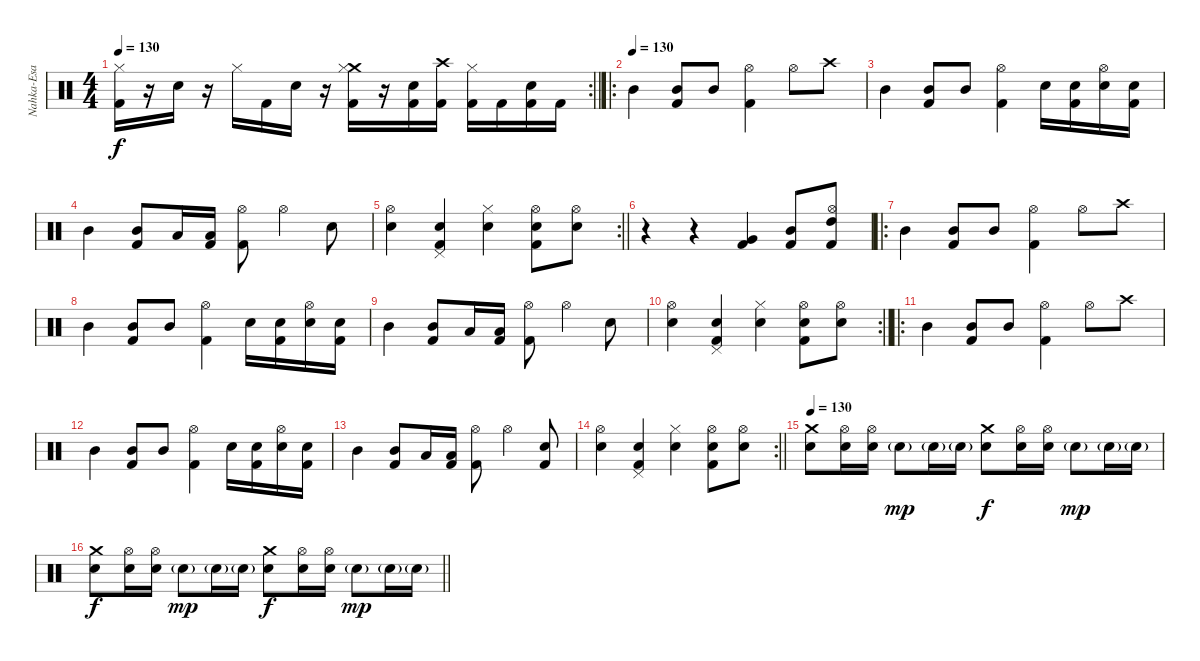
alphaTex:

\track ("Nahka-Esa" "Nahka-Esa") {instrument percussion}
\staff {score}
\articulation defaults
\rc 2
\ts (4 4)
\tempo 130
\clef neutral
\barLineRight lightlight
\ks c
("Hi-Hat (closed)" "Kick (hit) 2").16{dy f} r.16 "Snare (hit) 2".16 r.16 "Hi-Hat (closed)".16 "Kick (hit) 2".16 "Snare (hit) 2".16 r.16 ("Crash medium (hit)" "Hi-Hat (closed)" "Kick (hit) 2").16 r.16 ("Snare (hit) 2" "Kick (hit) 2").16 ("Crash high (hit)" "Kick (hit) 2").16 ("Hi-Hat (closed)" "Kick (hit) 2").16 "Kick (hit) 2".16 ("Snare (hit) 2" "Kick (hit) 2").16 "Kick (hit) 2".16 |
\ro
\tempo (130)
"Mid Tom (hit)".4 ("Mid Tom (hit)" "Kick (hit) 2").8 "Mid Tom (hit)".8 ("Hi-Hat (open)" "Kick (hit) 2").4 "Hi-Hat (open)".8 "Crash high (hit)".8 |
"Mid Tom (hit)".4 ("Mid Tom (hit)" "Kick (hit) 2").8 "Mid Tom (hit)".8 ("Hi-Hat (open)" "Kick (hit) 2").4 "Electric Snare (hit)".16 ("Electric Snare (hit)" "Kick (hit) 2").16 ("Hi-Hat (open)" "Electric Snare (hit)").16 ("Electric Snare (hit)" "Kick (hit) 2").16 |
"Mid Tom (hit)".4 ("Mid Tom (hit)" "Kick (hit) 2").8 "Low Tom (hit)".16 ("Low Tom (hit)" "Kick (hit) 2").16 ("Hi-Hat (open)" "Kick (hit) 2").8 "Hi-Hat (open)".4 "Electric Snare (hit)".8 |
\rc 2
\barLineRight lightlight
("Hi-Hat (open)" "Electric Snare (hit)").4 ("Pedal Hi-Hat (hit)" "Electric Snare (hit)" "Kick (hit) 2").4 ("Hi-Hat (closed)" "Electric Snare (hit)").4 ("Hi-Hat (open)" "Electric Snare (hit)" "Kick (hit) 2").8 ("Hi-Hat (open)" "Electric Snare (hit)").8 |
r.4 r.4 ("Very Low Tom (hit)" "Kick (hit) 2").4 ("Mid Tom (hit)" "Kick (hit) 2").8 ("Hi-Hat (open)" "High Tom (hit)" "Kick (hit) 2").8 |
\ro "Mid Tom (hit)".4
("Mid Tom (hit)" "Kick (hit) 2").8 "Mid Tom (hit)".8 ("Hi-Hat (open)" "Kick (hit) 2").4 "Hi-Hat (open)".8 "Crash high (hit)".8 |
"Mid Tom (hit)".4 ("Mid Tom (hit)" "Kick (hit) 2").8 "Mid Tom (hit)".8 ("Hi-Hat (open)" "Kick (hit) 2").4 "Electric Snare (hit)".16 ("Electric Snare (hit)" "Kick (hit) 2").16 ("Hi-Hat (open)" "Electric Snare (hit)").16 ("Electric Snare (hit)" "Kick (hit) 2").16 |
"Mid Tom (hit)".4 ("Mid Tom (hit)" "Kick (hit) 2").8 "Low Tom (hit)".16 ("Low Tom (hit)" "Kick (hit) 2").16 ("Hi-Hat (open)" "Kick (hit) 2").8 "Hi-Hat (open)".4 "Electric Snare (hit)".8 |
\rc 2
\barLineRight lightlight
("Hi-Hat (open)" "Electric Snare (hit)").4 ("Pedal Hi-Hat (hit)" "Electric Snare (hit)" "Kick (hit) 2").4 ("Hi-Hat (closed)" "Electric Snare (hit)").4 ("Hi-Hat (open)" "Electric Snare (hit)" "Kick (hit) 2").8 ("Hi-Hat (open)" "Electric Snare (hit)").8 |
\ro "Mid Tom (hit)".4
("Mid Tom (hit)" "Kick (hit) 2").8 "Mid Tom (hit)".8 ("Hi-Hat (open)" "Kick (hit) 2").4 "Hi-Hat (open)".8 "Crash high (hit)".8 |
"Mid Tom (hit)".4 ("Mid Tom (hit)" "Kick (hit) 2").8 "Mid Tom (hit)".8 ("Hi-Hat (open)" "Kick (hit) 2").4 "Electric Snare (hit)".16 ("Electric Snare (hit)" "Kick (hit) 2").16 ("Hi-Hat (open)" "Electric Snare (hit)").16 ("Electric Snare (hit)" "Kick (hit) 2").16 |
"Mid Tom (hit)".4 ("Mid Tom (hit)" "Kick (hit) 2").8 "Low Tom (hit)".16 ("Low Tom (hit)" "Kick (hit) 2").16 ("Hi-Hat (open)" "Kick (hit) 2").8 "Hi-Hat (open)".4 ("Electric Snare (hit)" "Kick (hit) 2").8 |
\rc 2
\barLineRight lightlight
("Hi-Hat (open)" "Electric Snare (hit)").4 ("Pedal Hi-Hat (hit)" "Electric Snare (hit)" "Kick (hit) 2").4 ("Hi-Hat (closed)" "Electric Snare (hit)").4 ("Hi-Hat (open)" "Electric Snare (hit)" "Kick (hit) 2").8 ("Hi-Hat (open)" "Electric Snare (hit)").8 |
\tempo 130
("Crash medium (hit)" "Electric Snare (hit)").8 ("Hi-Hat (open)" "Electric Snare (hit)").16 ("Hi-Hat (open)" "Electric Snare (hit)").16 "Snare (hit)"{g}.8{dy mp} "Snare (hit)"{g}.16 "Snare (hit)"{g}.16 ("Crash medium (hit)" "Electric Snare (hit)").8{dy f} ("Hi-Hat (open)" "Electric Snare (hit)").16 ("Hi-Hat (open)" "Electric Snare (hit)").16 "Snare (hit)"{g}.8{dy mp} "Snare (hit)"{g}.16 "Snare (hit)"{g}.16 |
\barLineRight lightlight
("Crash medium (hit)" "Electric Snare (hit)").8{dy f} ("Hi-Hat (open)" "Electric Snare (hit)").16 ("Hi-Hat (open)" "Electric Snare (hit)").16 "Snare (hit)"{g}.8{dy mp} "Snare (hit)"{g}.16 "Snare (hit)"{g}.16 ("Crash medium (hit)" "Electric Snare (hit)").8{dy f} ("Hi-Hat (open)" "Electric Snare (hit)").16 ("Hi-Hat (open)" "Electric Snare (hit)").16 "Snare (hit)"{g}.8{dy mp} "Snare (hit)"{g}.16 "Snare (hit)"{g}.16
